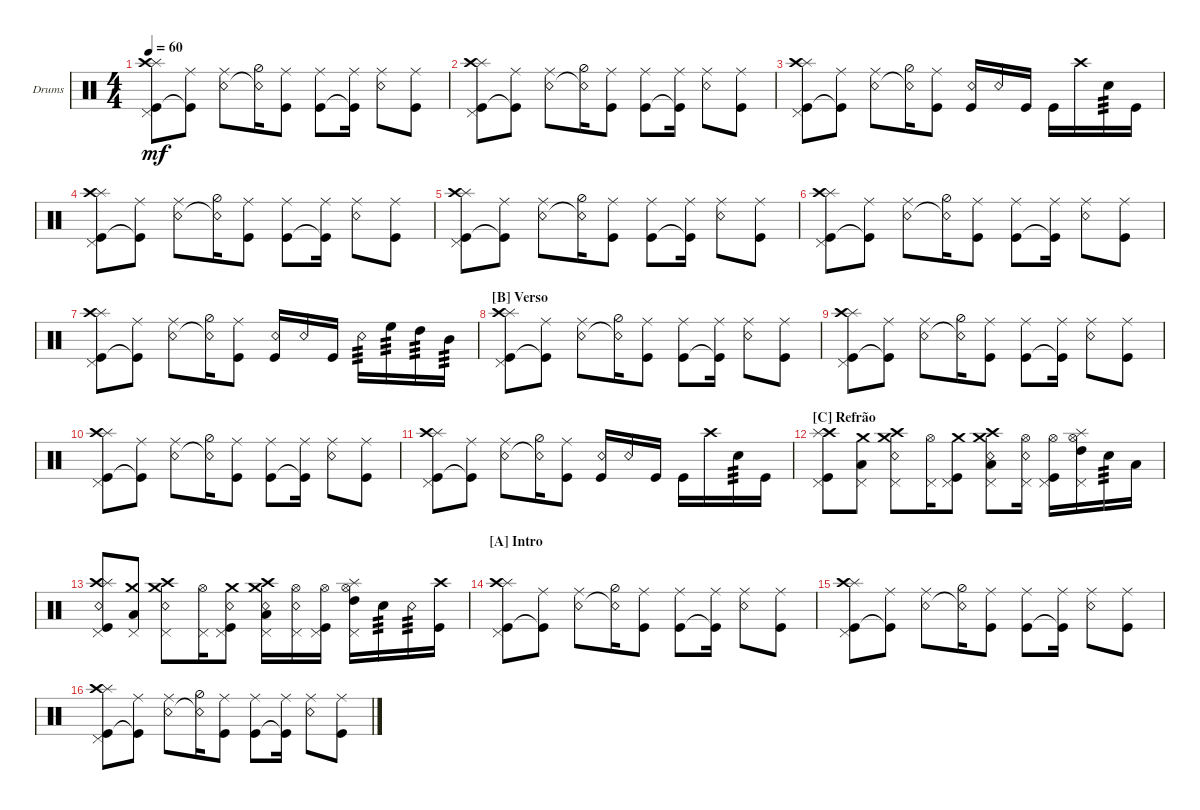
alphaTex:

\defaultSystemsLayout 4
\bracketExtendMode groupsimilarinstruments
\firstSystemTrackNameOrientation horizontal
\otherSystemsTrackNameOrientation horizontal
\track ("Drum" "Drums") {multiBarRest instrument percussion}
\staff {score}
\articulation defaults
\ts (4 4)
\tempo 60
\clef neutral
\ks c
("Kick (hit)" "Pedal Hi-Hat (hit)" "Splash (hit)" "Crash high (hit)").8{dy mf} ("Kick (hit)"{t} "Ride (middle)").8 ("Snare (rim shot)" "Ride (middle)").8 ("Snare (rim shot)"{t} "Hi-Hat (half)").16 ("Kick (hit)" "Ride (middle)").8 ("Kick (hit)" "Ride (middle)").8 ("Kick (hit)"{t} "Ride (middle)").16 ("Snare (rim shot)" "Ride (middle)").8 ("Kick (hit)" "Ride (middle)").8 |
("Kick (hit)" "Pedal Hi-Hat (hit)" "Splash (hit)" "Crash high (hit)").8 ("Kick (hit)"{t} "Ride (middle)").8 ("Snare (rim shot)" "Ride (middle)").8 ("Snare (rim shot)"{t} "Hi-Hat (half)").16 ("Kick (hit)" "Ride (middle)").8 ("Kick (hit)" "Ride (middle)").8 ("Kick (hit)"{t} "Ride (middle)").16 ("Snare (rim shot)" "Ride (middle)").8 ("Kick (hit)" "Ride (middle)").8 |
("Kick (hit)" "Pedal Hi-Hat (hit)" "Splash (hit)" "Crash high (hit)").8 ("Kick (hit)"{t} "Ride (middle)").8 ("Snare (rim shot)" "Ride (middle)").8 ("Snare (rim shot)"{t} "Hi-Hat (half)").16 ("Kick (hit)" "Ride (middle)").8 ("Snare (rim shot)" "Kick (hit)").16 "Snare (rim shot)".16 "Kick (hit)".16 "Kick (hit)".16 "Crash high (hit)".16 "Snare (hit) 2".16{tp 3} "Kick (hit)".16 |
("Kick (hit)" "Pedal Hi-Hat (hit)" "Splash (hit)" "Crash high (hit)").8 ("Kick (hit)"{t} "Ride (middle)").8 ("Snare (rim shot)" "Ride (middle)").8 ("Snare (rim shot)"{t} "Hi-Hat (half)").16 ("Kick (hit)" "Ride (middle)").8 ("Kick (hit)" "Ride (middle)").8 ("Kick (hit)"{t} "Ride (middle)").16 ("Snare (rim shot)" "Ride (middle)").8 ("Kick (hit)" "Ride (middle)").8 |
("Kick (hit)" "Pedal Hi-Hat (hit)" "Splash (hit)" "Crash high (hit)").8 ("Kick (hit)"{t} "Ride (middle)").8 ("Snare (rim shot)" "Ride (middle)").8 ("Snare (rim shot)"{t} "Hi-Hat (half)").16 ("Kick (hit)" "Ride (middle)").8 ("Kick (hit)" "Ride (middle)").8 ("Kick (hit)"{t} "Ride (middle)").16 ("Snare (rim shot)" "Ride (middle)").8 ("Kick (hit)" "Ride (middle)").8 |
("Kick (hit)" "Pedal Hi-Hat (hit)" "Splash (hit)" "Crash high (hit)").8 ("Kick (hit)"{t} "Ride (middle)").8 ("Snare (rim shot)" "Ride (middle)").8 ("Snare (rim shot)"{t} "Hi-Hat (half)").16 ("Kick (hit)" "Ride (middle)").8 ("Kick (hit)" "Ride (middle)").8 ("Kick (hit)"{t} "Ride (middle)").16 ("Snare (rim shot)" "Ride (middle)").8 ("Kick (hit)" "Ride (middle)").8 |
("Kick (hit)" "Pedal Hi-Hat (hit)" "Splash (hit)" "Crash high (hit)").8 ("Kick (hit)"{t} "Ride (middle)").8 ("Snare (rim shot)" "Ride (middle)").8 ("Snare (rim shot)"{t} "Hi-Hat (half)").16 ("Kick (hit)" "Ride (middle)").8 ("Snare (rim shot)" "Kick (hit)").16 "Snare (rim shot)".16 "Kick (hit)".16 "Snare (rim shot)".16{tp 3} "High Floor Tom (hit)".16{tp 3} "High Tom (hit)".16{tp 3} "Mid Tom (hit)".16{tp 3} |
\section ("B" "Verso")
("Kick (hit)" "Pedal Hi-Hat (hit)" "Splash (hit)" "Crash high (hit)").8 ("Kick (hit)"{t} "Ride (middle)").8 ("Snare (rim shot)" "Ride (middle)").8 ("Snare (rim shot)"{t} "Hi-Hat (half)").16 ("Kick (hit)" "Ride (middle)").8 ("Kick (hit)" "Ride (middle)").8 ("Kick (hit)"{t} "Ride (middle)").16 ("Snare (rim shot)" "Ride (middle)").8 ("Kick (hit)" "Ride (middle)").8 |
("Kick (hit)" "Pedal Hi-Hat (hit)" "Splash (hit)" "Crash high (hit)").8 ("Kick (hit)"{t} "Ride (middle)").8 ("Snare (rim shot)" "Ride (middle)").8 ("Snare (rim shot)"{t} "Hi-Hat (half)").16 ("Kick (hit)" "Ride (middle)").8 ("Kick (hit)" "Ride (middle)").8 ("Kick (hit)"{t} "Ride (middle)").16 ("Snare (rim shot)" "Ride (middle)").8 ("Kick (hit)" "Ride (middle)").8 |
("Kick (hit)" "Pedal Hi-Hat (hit)" "Splash (hit)" "Crash high (hit)").8 ("Kick (hit)"{t} "Ride (middle)").8 ("Snare (rim shot)" "Ride (middle)").8 ("Snare (rim shot)"{t} "Hi-Hat (half)").16 ("Kick (hit)" "Ride (middle)").8 ("Kick (hit)" "Ride (middle)").8 ("Kick (hit)"{t} "Ride (middle)").16 ("Snare (rim shot)" "Ride (middle)").8 ("Kick (hit)" "Ride (middle)").8 |
("Kick (hit)" "Pedal Hi-Hat (hit)" "Splash (hit)" "Crash high (hit)").8 ("Kick (hit)"{t} "Ride (middle)").8 ("Snare (rim shot)" "Ride (middle)").8 ("Snare (rim shot)"{t} "Hi-Hat (half)").16 ("Kick (hit)" "Ride (middle)").8 ("Snare (rim shot)" "Kick (hit)").16 "Snare (rim shot)".16 "Kick (hit)".16 "Kick (hit)".16 "Crash high (hit)".16 "Snare (hit) 2".16{tp 3} "Kick (hit)".16 |
\section ("C" "Refrão")
("Crash high (hit)" "Kick (hit)" "Splash (hit)" "Pedal Hi-Hat (hit)").8 ("Crash medium (hit)" "Low Tom (hit)" "Pedal Hi-Hat (hit)").8 ("Snare (rim shot)" "Pedal Hi-Hat (hit)" "Crash medium (hit)" "Crash high (hit)").8 ("Pedal Hi-Hat (hit)" "Hi-Hat (open)").16 ("Kick (hit)" "Pedal Hi-Hat (hit)" "Crash medium (hit)").8 ("Snare (rim shot)" "Crash medium (hit)" "Crash high (hit)" "Pedal Hi-Hat (hit)" "Low Tom (hit)").8 ("Snare (rim shot)" "Hi-Hat (open)" "Pedal Hi-Hat (hit)").16 ("Hi-Hat (open)" "Kick (hit)" "Pedal Hi-Hat (hit)").16 ("Splash (hit)" "Pedal Hi-Hat (hit)" "Hi-Hat (open)" "High Tom (hit)").16 "Snare (hit) 2".16{tp 3} "Low Tom (hit)".16 |
("Crash high (hit)" "Kick (hit)" "Splash (hit)" "Pedal Hi-Hat (hit)" "Snare (rim shot)").8 ("Crash medium (hit)" "Low Tom (hit)" "Pedal Hi-Hat (hit)").8 ("Snare (rim shot)" "Pedal Hi-Hat (hit)" "Crash medium (hit)" "Crash high (hit)").8 ("Pedal Hi-Hat (hit)" "Hi-Hat (open)").16 ("Kick (hit)" "Pedal Hi-Hat (hit)" "Crash medium (hit)" "Snare (rim shot)").8 ("Snare (rim shot)" "Crash medium (hit)" "Crash high (hit)" "Pedal Hi-Hat (hit)" "Low Tom (hit)").16 ("Snare (rim shot)" "Hi-Hat (open)" "Pedal Hi-Hat (hit)").16 ("Hi-Hat (open)" "Kick (hit)" "Pedal Hi-Hat (hit)").16 ("Splash (hit)" "Pedal Hi-Hat (hit)" "Hi-Hat (open)" "High Tom (hit)").16 "Snare (hit) 2".16{tp 3} "Snare (rim shot)".16{tp 3} ("Crash high (hit)" "Kick (hit)").16 |
\section ("A" "Intro")
("Kick (hit)" "Pedal Hi-Hat (hit)" "Splash (hit)" "Crash high (hit)").8 ("Kick (hit)"{t} "Ride (middle)").8 ("Snare (rim shot)" "Ride (middle)").8 ("Snare (rim shot)"{t} "Hi-Hat (half)").16 ("Kick (hit)" "Ride (middle)").8 ("Kick (hit)" "Ride (middle)").8 ("Kick (hit)"{t} "Ride (middle)").16 ("Snare (rim shot)" "Ride (middle)").8 ("Kick (hit)" "Ride (middle)").8 |
("Kick (hit)" "Pedal Hi-Hat (hit)" "Splash (hit)" "Crash high (hit)").8 ("Kick (hit)"{t} "Ride (middle)").8 ("Snare (rim shot)" "Ride (middle)").8 ("Snare (rim shot)"{t} "Hi-Hat (half)").16 ("Kick (hit)" "Ride (middle)").8 ("Kick (hit)" "Ride (middle)").8 ("Kick (hit)"{t} "Ride (middle)").16 ("Snare (rim shot)" "Ride (middle)").8 ("Kick (hit)" "Ride (middle)").8 |
("Kick (hit)" "Pedal Hi-Hat (hit)" "Splash (hit)" "Crash high (hit)").8 ("Kick (hit)"{t} "Ride (middle)").8 ("Snare (rim shot)" "Ride (middle)").8 ("Snare (rim shot)"{t} "Hi-Hat (half)").16 ("Kick (hit)" "Ride (middle)").8 ("Kick (hit)" "Ride (middle)").8 ("Kick (hit)"{t} "Ride (middle)").16 ("Snare (rim shot)" "Ride (middle)").8 ("Kick (hit)" "Ride (middle)").8
